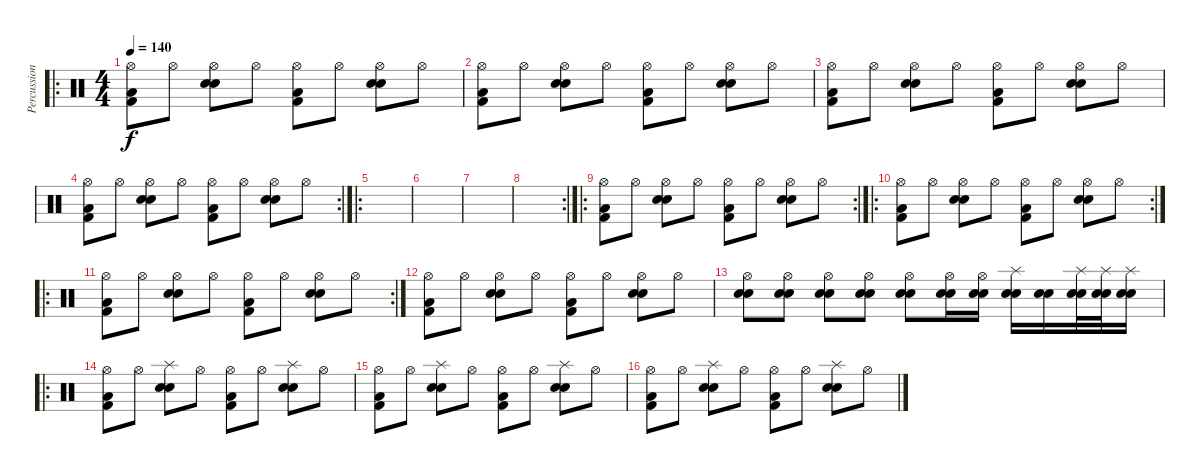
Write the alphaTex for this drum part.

\track ("Percussions" "Percussion") {instrument percussion}
\staff {score}
\articulation defaults
\ro
\ts (4 4)
\tempo 140
\clef neutral
\ks c
("Hi-Hat (open)" "Kick (hit) 2" "Low Floor Tom (hit)").8{dy f} "Hi-Hat (open)".8 ("Hi-Hat (open)" "Snare (hit) 2" "Electric Snare (hit)").8 "Hi-Hat (open)".8 ("Hi-Hat (open)" "Kick (hit) 2" "Low Floor Tom (hit)").8 "Hi-Hat (open)".8 ("Hi-Hat (open)" "Snare (hit) 2" "Electric Snare (hit)").8 "Hi-Hat (open)".8 |
("Hi-Hat (open)" "Kick (hit) 2" "Low Floor Tom (hit)").8 "Hi-Hat (open)".8 ("Hi-Hat (open)" "Snare (hit) 2" "Electric Snare (hit)").8 "Hi-Hat (open)".8 ("Hi-Hat (open)" "Kick (hit) 2" "Low Floor Tom (hit)").8 "Hi-Hat (open)".8 ("Hi-Hat (open)" "Snare (hit) 2" "Electric Snare (hit)").8 "Hi-Hat (open)".8 |
("Hi-Hat (open)" "Kick (hit) 2" "Low Floor Tom (hit)").8 "Hi-Hat (open)".8 ("Hi-Hat (open)" "Snare (hit) 2" "Electric Snare (hit)").8 "Hi-Hat (open)".8 ("Hi-Hat (open)" "Kick (hit) 2" "Low Floor Tom (hit)").8 "Hi-Hat (open)".8 ("Hi-Hat (open)" "Snare (hit) 2" "Electric Snare (hit)").8 "Hi-Hat (open)".8 |
\rc 2
("Hi-Hat (open)" "Kick (hit) 2" "Low Floor Tom (hit)").8 "Hi-Hat (open)".8 ("Hi-Hat (open)" "Snare (hit) 2" "Electric Snare (hit)").8 "Hi-Hat (open)".8 ("Hi-Hat (open)" "Kick (hit) 2" "Low Floor Tom (hit)").8 "Hi-Hat (open)".8 ("Hi-Hat (open)" "Snare (hit) 2" "Electric Snare (hit)").8 "Hi-Hat (open)".8 |
\ro
|
|
|
\rc 2
|
\ro
\rc 2
("Hi-Hat (open)" "Kick (hit) 2" "Low Floor Tom (hit)").8 "Hi-Hat (open)".8 ("Hi-Hat (open)" "Snare (hit) 2" "Electric Snare (hit)").8 "Hi-Hat (open)".8 ("Hi-Hat (open)" "Kick (hit) 2" "Low Floor Tom (hit)").8 "Hi-Hat (open)".8 ("Hi-Hat (open)" "Snare (hit) 2" "Electric Snare (hit)").8 "Hi-Hat (open)".8 |
\ro
\rc 2
("Hi-Hat (open)" "Kick (hit) 2" "Low Floor Tom (hit)").8 "Hi-Hat (open)".8 ("Hi-Hat (open)" "Snare (hit) 2" "Electric Snare (hit)").8 "Hi-Hat (open)".8 ("Hi-Hat (open)" "Kick (hit) 2" "Low Floor Tom (hit)").8 "Hi-Hat (open)".8 ("Hi-Hat (open)" "Snare (hit) 2" "Electric Snare (hit)").8 "Hi-Hat (open)".8 |
\ro
\rc 2
("Hi-Hat (open)" "Kick (hit) 2" "Low Floor Tom (hit)").8 "Hi-Hat (open)".8 ("Hi-Hat (open)" "Snare (hit) 2" "Electric Snare (hit)").8 "Hi-Hat (open)".8 ("Hi-Hat (open)" "Kick (hit) 2" "Low Floor Tom (hit)").8 "Hi-Hat (open)".8 ("Hi-Hat (open)" "Snare (hit) 2" "Electric Snare (hit)").8 "Hi-Hat (open)".8 |
("Hi-Hat (open)" "Kick (hit) 2" "Low Floor Tom (hit)").8 "Hi-Hat (open)".8 ("Hi-Hat (open)" "Snare (hit) 2" "Electric Snare (hit)").8 "Hi-Hat (open)".8 ("Hi-Hat (open)" "Kick (hit) 2" "Low Floor Tom (hit)").8 "Hi-Hat (open)".8 ("Hi-Hat (open)" "Snare (hit) 2" "Electric Snare (hit)").8 "Hi-Hat (open)".8 |
("Hi-Hat (open)" "Snare (hit) 2" "Electric Snare (hit)").8 ("Hi-Hat (open)" "Snare (hit) 2" "Electric Snare (hit)").8 ("Hi-Hat (open)" "Snare (hit) 2" "Electric Snare (hit)").8 ("Hi-Hat (open)" "Snare (hit) 2" "Electric Snare (hit)").8 ("Hi-Hat (open)" "Snare (hit) 2" "Electric Snare (hit)").8 ("Hi-Hat (open)" "Snare (hit) 2" "Electric Snare (hit)").16 ("Hi-Hat (open)" "Snare (hit) 2" "Electric Snare (hit)").16 ("Splash (hit)" "Snare (hit) 2" "Electric Snare (hit)").16 ("Snare (hit) 2" "Electric Snare (hit)").16 ("Splash (hit)" "Snare (hit) 2" "Electric Snare (hit)").32 ("Splash (hit)" "Snare (hit) 2" "Electric Snare (hit)").32 ("Splash (hit)" "Snare (hit) 2" "Electric Snare (hit)").16 |
\ro
("Hi-Hat (open)" "Kick (hit) 2" "Low Floor Tom (hit)").8 "Hi-Hat (open)".8 ("Splash (hit)" "Snare (hit) 2" "Electric Snare (hit)").8 "Hi-Hat (open)".8 ("Hi-Hat (open)" "Kick (hit) 2" "Low Floor Tom (hit)").8 "Hi-Hat (open)".8 ("Splash (hit)" "Snare (hit) 2" "Electric Snare (hit)").8 "Hi-Hat (open)".8 |
("Hi-Hat (open)" "Kick (hit) 2" "Low Floor Tom (hit)").8 "Hi-Hat (open)".8 ("Splash (hit)" "Snare (hit) 2" "Electric Snare (hit)").8 "Hi-Hat (open)".8 ("Hi-Hat (open)" "Kick (hit) 2" "Low Floor Tom (hit)").8 "Hi-Hat (open)".8 ("Splash (hit)" "Snare (hit) 2" "Electric Snare (hit)").8 "Hi-Hat (open)".8 |
("Hi-Hat (open)" "Kick (hit) 2" "Low Floor Tom (hit)").8 "Hi-Hat (open)".8 ("Splash (hit)" "Snare (hit) 2" "Electric Snare (hit)").8 "Hi-Hat (open)".8 ("Hi-Hat (open)" "Kick (hit) 2" "Low Floor Tom (hit)").8 "Hi-Hat (open)".8 ("Splash (hit)" "Snare (hit) 2" "Electric Snare (hit)").8 "Hi-Hat (open)".8
